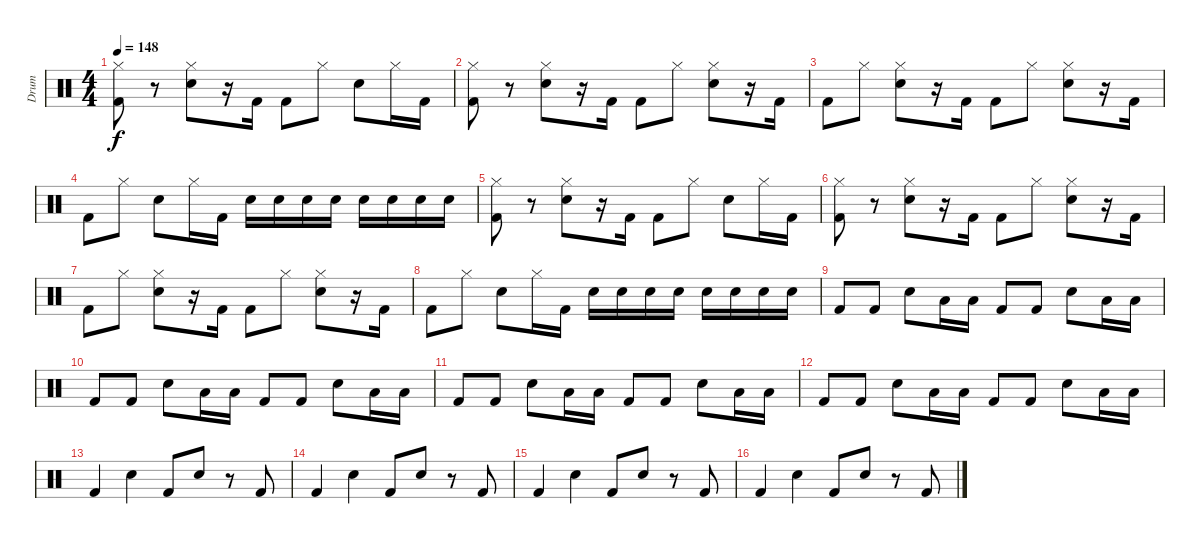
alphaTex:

\track ("Drum" "Drum") {instrument percussion}
\staff {score}
\articulation defaults
\ts (4 4)
\tempo 148
\clef neutral
\ks c
("Hi-Hat (closed)" "Kick (hit) 2").8{dy f} r.8 ("Hi-Hat (closed)" "Electric Snare (hit)").8 r.16 "Kick (hit) 2".16 "Kick (hit) 2".8 "Hi-Hat (closed)".8 "Electric Snare (hit)".8 "Hi-Hat (closed)".16 "Kick (hit) 2".16 |
("Hi-Hat (closed)" "Kick (hit) 2").8 r.8 ("Hi-Hat (closed)" "Electric Snare (hit)").8 r.16 "Kick (hit) 2".16 "Kick (hit) 2".8 "Hi-Hat (closed)".8 ("Hi-Hat (closed)" "Electric Snare (hit)").8 r.16 "Kick (hit) 2".16 |
"Kick (hit) 2".8 "Hi-Hat (closed)".8 ("Hi-Hat (closed)" "Electric Snare (hit)").8 r.16 "Kick (hit) 2".16 "Kick (hit) 2".8 "Hi-Hat (closed)".8 ("Hi-Hat (closed)" "Electric Snare (hit)").8 r.16 "Kick (hit) 2".16 |
"Kick (hit) 2".8 "Hi-Hat (closed)".8 "Electric Snare (hit)".8 "Hi-Hat (closed)".16 "Kick (hit) 2".16 "Electric Snare (hit)".16 "Electric Snare (hit)".16 "Electric Snare (hit)".16 "Electric Snare (hit)".16 "Electric Snare (hit)".16 "Electric Snare (hit)".16 "Electric Snare (hit)".16 "Electric Snare (hit)".16 |
("Hi-Hat (closed)" "Kick (hit) 2").8 r.8 ("Hi-Hat (closed)" "Electric Snare (hit)").8 r.16 "Kick (hit) 2".16 "Kick (hit) 2".8 "Hi-Hat (closed)".8 "Electric Snare (hit)".8 "Hi-Hat (closed)".16 "Kick (hit) 2".16 |
("Hi-Hat (closed)" "Kick (hit) 2").8 r.8 ("Hi-Hat (closed)" "Electric Snare (hit)").8 r.16 "Kick (hit) 2".16 "Kick (hit) 2".8 "Hi-Hat (closed)".8 ("Hi-Hat (closed)" "Electric Snare (hit)").8 r.16 "Kick (hit) 2".16 |
"Kick (hit) 2".8 "Hi-Hat (closed)".8 ("Hi-Hat (closed)" "Electric Snare (hit)").8 r.16 "Kick (hit) 2".16 "Kick (hit) 2".8 "Hi-Hat (closed)".8 ("Hi-Hat (closed)" "Electric Snare (hit)").8 r.16 "Kick (hit) 2".16 |
"Kick (hit) 2".8 "Hi-Hat (closed)".8 "Electric Snare (hit)".8 "Hi-Hat (closed)".16 "Kick (hit) 2".16 "Electric Snare (hit)".16 "Electric Snare (hit)".16 "Electric Snare (hit)".16 "Electric Snare (hit)".16 "Electric Snare (hit)".16 "Electric Snare (hit)".16 "Electric Snare (hit)".16 "Electric Snare (hit)".16 |
"Kick (hit) 2".8 "Kick (hit) 2".8 "Electric Snare (hit)".8 "Low Tom (hit)".16 "Low Tom (hit)".16 "Kick (hit) 2".8 "Kick (hit) 2".8 "Electric Snare (hit)".8 "Low Tom (hit)".16 "Low Tom (hit)".16 |
"Kick (hit) 2".8 "Kick (hit) 2".8 "Electric Snare (hit)".8 "Low Tom (hit)".16 "Low Tom (hit)".16 "Kick (hit) 2".8 "Kick (hit) 2".8 "Electric Snare (hit)".8 "Low Tom (hit)".16 "Low Tom (hit)".16 |
"Kick (hit) 2".8 "Kick (hit) 2".8 "Electric Snare (hit)".8 "Low Tom (hit)".16 "Low Tom (hit)".16 "Kick (hit) 2".8 "Kick (hit) 2".8 "Electric Snare (hit)".8 "Low Tom (hit)".16 "Low Tom (hit)".16 |
"Kick (hit) 2".8 "Kick (hit) 2".8 "Electric Snare (hit)".8 "Low Tom (hit)".16 "Low Tom (hit)".16 "Kick (hit) 2".8 "Kick (hit) 2".8 "Electric Snare (hit)".8 "Low Tom (hit)".16 "Low Tom (hit)".16 |
"Kick (hit) 2".4 "Electric Snare (hit)".4 "Kick (hit) 2".8 "Electric Snare (hit)".8 r.8 "Kick (hit) 2".8 |
"Kick (hit) 2".4 "Electric Snare (hit)".4 "Kick (hit) 2".8 "Electric Snare (hit)".8 r.8 "Kick (hit) 2".8 |
"Kick (hit) 2".4 "Electric Snare (hit)".4 "Kick (hit) 2".8 "Electric Snare (hit)".8 r.8 "Kick (hit) 2".8 |
"Kick (hit) 2".4 "Electric Snare (hit)".4 "Kick (hit) 2".8 "Electric Snare (hit)".8 r.8 "Kick (hit) 2".8
